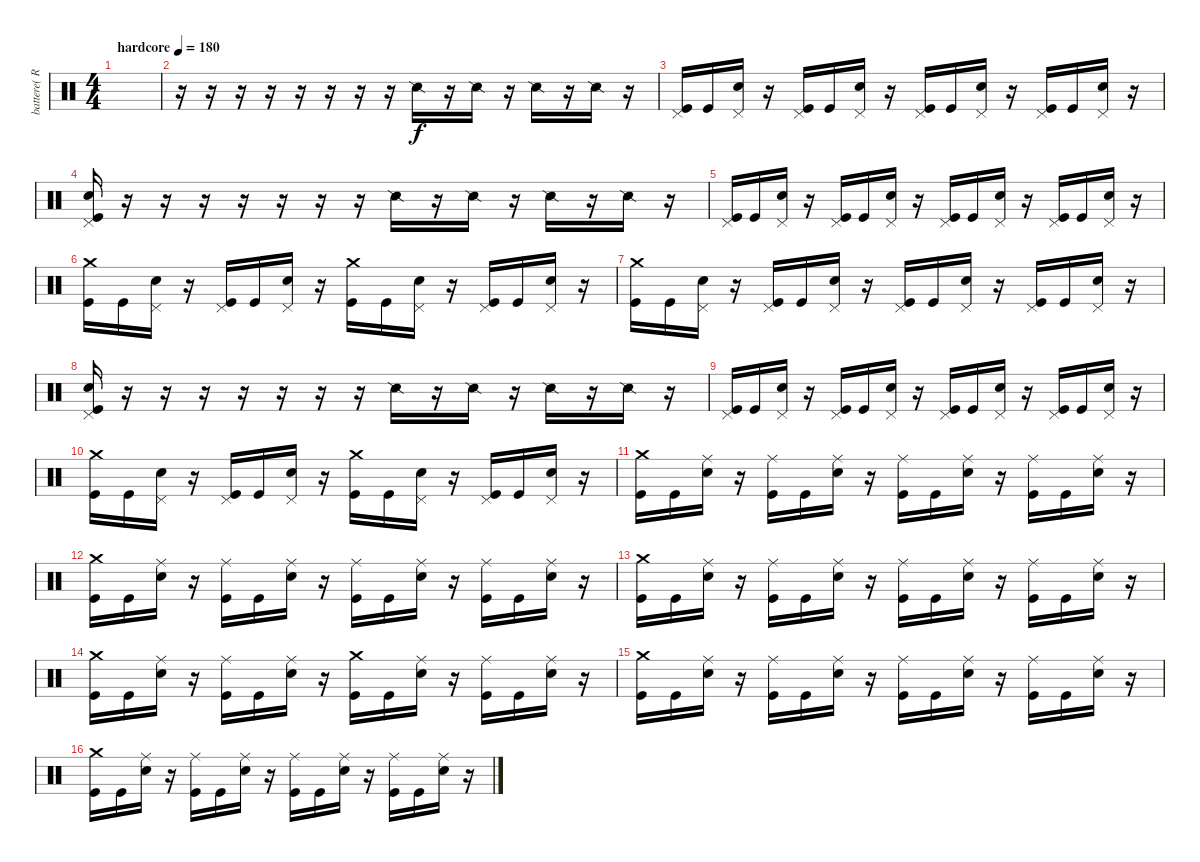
\track ("battere( Rob )" "battere( R") {instrument percussion}
\staff {score}
\articulation defaults
\ts (4 4)
\tempo (180 "hardcore")
\clef neutral
\ks c
|
r.16 r.16 r.16 r.16 r.16 r.16 r.16 r.16 "Snare (side stick) 2".16 r.16 "Snare (side stick) 2".16 r.16 "Snare (side stick) 2".16 r.16 "Snare (side stick) 2".16 r.16 |
("Pedal Hi-Hat (hit)" "Kick (hit)").16 "Kick (hit)".16 ("Pedal Hi-Hat (hit)" "Snare (hit) 2").16 r.16 ("Pedal Hi-Hat (hit)" "Kick (hit)").16 "Kick (hit)".16 ("Pedal Hi-Hat (hit)" "Snare (hit) 2").16 r.16 ("Pedal Hi-Hat (hit)" "Kick (hit)").16 "Kick (hit)".16 ("Pedal Hi-Hat (hit)" "Snare (hit) 2").16 r.16 ("Pedal Hi-Hat (hit)" "Kick (hit)").16 "Kick (hit)".16 ("Pedal Hi-Hat (hit)" "Snare (hit) 2").16 r.16 |
("Pedal Hi-Hat (hit)" "Snare (hit) 2" "Kick (hit)").16 r.16 r.16 r.16 r.16 r.16 r.16 r.16 "Snare (side stick) 2".16 r.16 "Snare (side stick) 2".16 r.16 "Snare (side stick) 2".16 r.16 "Snare (side stick) 2".16 r.16 |
("Pedal Hi-Hat (hit)" "Kick (hit)").16 "Kick (hit)".16 ("Pedal Hi-Hat (hit)" "Snare (hit) 2").16 r.16 ("Pedal Hi-Hat (hit)" "Kick (hit)").16 "Kick (hit)".16 ("Pedal Hi-Hat (hit)" "Snare (hit) 2").16 r.16 ("Pedal Hi-Hat (hit)" "Kick (hit)").16 "Kick (hit)".16 ("Pedal Hi-Hat (hit)" "Snare (hit) 2").16 r.16 ("Pedal Hi-Hat (hit)" "Kick (hit)").16 "Kick (hit)".16 ("Pedal Hi-Hat (hit)" "Snare (hit) 2").16 r.16 |
("Crash medium (hit)" "Kick (hit)").16 "Kick (hit)".16 ("Pedal Hi-Hat (hit)" "Snare (hit) 2").16 r.16 ("Pedal Hi-Hat (hit)" "Kick (hit)").16 "Kick (hit)".16 ("Pedal Hi-Hat (hit)" "Snare (hit) 2").16 r.16 ("Crash medium (hit)" "Kick (hit)").16 "Kick (hit)".16 ("Pedal Hi-Hat (hit)" "Snare (hit) 2").16 r.16 ("Pedal Hi-Hat (hit)" "Kick (hit)").16 "Kick (hit)".16 ("Pedal Hi-Hat (hit)" "Snare (hit) 2").16 r.16 |
("Crash medium (hit)" "Kick (hit)").16 "Kick (hit)".16 ("Pedal Hi-Hat (hit)" "Snare (hit) 2").16 r.16 ("Pedal Hi-Hat (hit)" "Kick (hit)").16 "Kick (hit)".16 ("Pedal Hi-Hat (hit)" "Snare (hit) 2").16 r.16 ("Pedal Hi-Hat (hit)" "Kick (hit)").16 "Kick (hit)".16 ("Pedal Hi-Hat (hit)" "Snare (hit) 2").16 r.16 ("Pedal Hi-Hat (hit)" "Kick (hit)").16 "Kick (hit)".16 ("Pedal Hi-Hat (hit)" "Snare (hit) 2").16 r.16 |
("Pedal Hi-Hat (hit)" "Snare (hit) 2" "Kick (hit)").16 r.16 r.16 r.16 r.16 r.16 r.16 r.16 "Snare (side stick) 2".16 r.16 "Snare (side stick) 2".16 r.16 "Snare (side stick) 2".16 r.16 "Snare (side stick) 2".16 r.16 |
("Pedal Hi-Hat (hit)" "Kick (hit)").16 "Kick (hit)".16 ("Pedal Hi-Hat (hit)" "Snare (hit) 2").16 r.16 ("Pedal Hi-Hat (hit)" "Kick (hit)").16 "Kick (hit)".16 ("Pedal Hi-Hat (hit)" "Snare (hit) 2").16 r.16 ("Pedal Hi-Hat (hit)" "Kick (hit)").16 "Kick (hit)".16 ("Pedal Hi-Hat (hit)" "Snare (hit) 2").16 r.16 ("Pedal Hi-Hat (hit)" "Kick (hit)").16 "Kick (hit)".16 ("Pedal Hi-Hat (hit)" "Snare (hit) 2").16 r.16 |
("Crash medium (hit)" "Kick (hit)").16 "Kick (hit)".16 ("Pedal Hi-Hat (hit)" "Snare (hit) 2").16 r.16 ("Pedal Hi-Hat (hit)" "Kick (hit)").16 "Kick (hit)".16 ("Pedal Hi-Hat (hit)" "Snare (hit) 2").16 r.16 ("Crash medium (hit)" "Kick (hit)").16 "Kick (hit)".16 ("Pedal Hi-Hat (hit)" "Snare (hit) 2").16 r.16 ("Pedal Hi-Hat (hit)" "Kick (hit)").16 "Kick (hit)".16 ("Pedal Hi-Hat (hit)" "Snare (hit) 2").16 r.16 |
("Crash medium (hit)" "Kick (hit)").16 "Kick (hit)".16 ("Ride (middle)" "Snare (hit) 2").16 r.16 ("Ride (middle)" "Kick (hit)").16 "Kick (hit)".16 ("Ride (middle)" "Snare (hit) 2").16 r.16 ("Ride (middle)" "Kick (hit)").16 "Kick (hit)".16 ("Ride (middle)" "Snare (hit) 2").16 r.16 ("Ride (middle)" "Kick (hit)").16 "Kick (hit)".16 ("Ride (middle)" "Snare (hit) 2").16 r.16 |
("Crash medium (hit)" "Kick (hit)").16 "Kick (hit)".16 ("Ride (middle)" "Snare (hit) 2").16 r.16 ("Ride (middle)" "Kick (hit)").16 "Kick (hit)".16 ("Ride (middle)" "Snare (hit) 2").16 r.16 ("Ride (middle)" "Kick (hit)").16 "Kick (hit)".16 ("Ride (middle)" "Snare (hit) 2").16 r.16 ("Ride (middle)" "Kick (hit)").16 "Kick (hit)".16 ("Ride (middle)" "Snare (hit) 2").16 r.16 |
("Crash medium (hit)" "Kick (hit)").16 "Kick (hit)".16 ("Ride (middle)" "Snare (hit) 2").16 r.16 ("Ride (middle)" "Kick (hit)").16 "Kick (hit)".16 ("Ride (middle)" "Snare (hit) 2").16 r.16 ("Ride (middle)" "Kick (hit)").16 "Kick (hit)".16 ("Ride (middle)" "Snare (hit) 2").16 r.16 ("Ride (middle)" "Kick (hit)").16 "Kick (hit)".16 ("Ride (middle)" "Snare (hit) 2").16 r.16 |
("Crash medium (hit)" "Kick (hit)").16 "Kick (hit)".16 ("Ride (middle)" "Snare (hit) 2").16 r.16 ("Ride (middle)" "Kick (hit)").16 "Kick (hit)".16 ("Ride (middle)" "Snare (hit) 2").16 r.16 ("Crash medium (hit)" "Kick (hit)").16 "Kick (hit)".16 ("Ride (middle)" "Snare (hit) 2").16 r.16 ("Ride (middle)" "Kick (hit)").16 "Kick (hit)".16 ("Ride (middle)" "Snare (hit) 2").16 r.16 |
("Crash medium (hit)" "Kick (hit)").16 "Kick (hit)".16 ("Ride (middle)" "Snare (hit) 2").16 r.16 ("Ride (middle)" "Kick (hit)").16 "Kick (hit)".16 ("Ride (middle)" "Snare (hit) 2").16 r.16 ("Ride (middle)" "Kick (hit)").16 "Kick (hit)".16 ("Ride (middle)" "Snare (hit) 2").16 r.16 ("Ride (middle)" "Kick (hit)").16 "Kick (hit)".16 ("Ride (middle)" "Snare (hit) 2").16 r.16 |
("Crash medium (hit)" "Kick (hit)").16 "Kick (hit)".16 ("Ride (middle)" "Snare (hit) 2").16 r.16 ("Ride (middle)" "Kick (hit)").16 "Kick (hit)".16 ("Ride (middle)" "Snare (hit) 2").16 r.16 ("Ride (middle)" "Kick (hit)").16 "Kick (hit)".16 ("Ride (middle)" "Snare (hit) 2").16 r.16 ("Ride (middle)" "Kick (hit)").16 "Kick (hit)".16 ("Ride (middle)" "Snare (hit) 2").16 r.16
